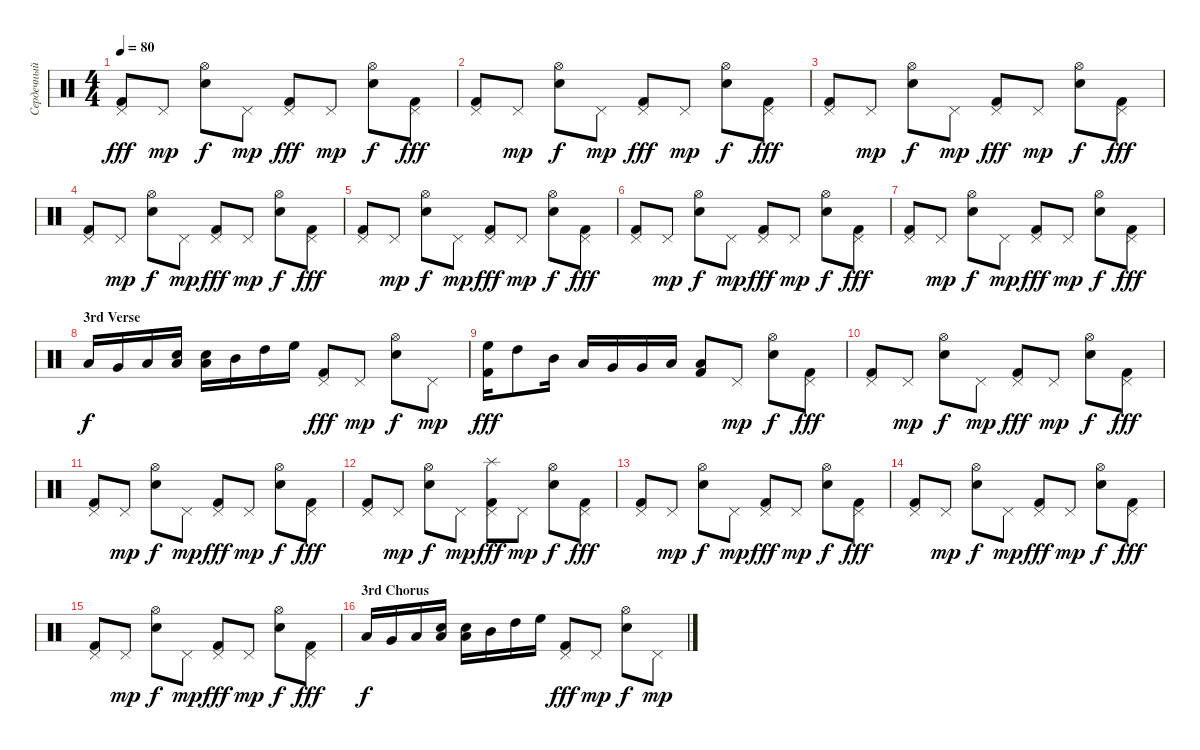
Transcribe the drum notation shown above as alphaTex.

\track ("Сердечный (Ударные)" "Сердечный ") {instrument percussion}
\staff {score}
\articulation defaults
\ts (4 4)
\tempo 80
\clef neutral
\ks c
("Pedal Hi-Hat (hit)" "Kick (hit) 2").8{dy fff} "Pedal Hi-Hat (hit)".8{dy mp} ("Hi-Hat (open)" "Electric Snare (hit)").8{dy f} "Pedal Hi-Hat (hit)".8{dy mp} ("Pedal Hi-Hat (hit)" "Kick (hit) 2").8{dy fff} "Pedal Hi-Hat (hit)".8{dy mp} ("Hi-Hat (open)" "Electric Snare (hit)").8{dy f} ("Pedal Hi-Hat (hit)" "Kick (hit) 2").8{dy fff} |
("Pedal Hi-Hat (hit)" "Kick (hit) 2").8 "Pedal Hi-Hat (hit)".8{dy mp} ("Hi-Hat (open)" "Electric Snare (hit)").8{dy f} "Pedal Hi-Hat (hit)".8{dy mp} ("Pedal Hi-Hat (hit)" "Kick (hit) 2").8{dy fff} "Pedal Hi-Hat (hit)".8{dy mp} ("Hi-Hat (open)" "Electric Snare (hit)").8{dy f} ("Pedal Hi-Hat (hit)" "Kick (hit) 2").8{dy fff} |
("Pedal Hi-Hat (hit)" "Kick (hit) 2").8 "Pedal Hi-Hat (hit)".8{dy mp} ("Hi-Hat (open)" "Electric Snare (hit)").8{dy f} "Pedal Hi-Hat (hit)".8{dy mp} ("Pedal Hi-Hat (hit)" "Kick (hit) 2").8{dy fff} "Pedal Hi-Hat (hit)".8{dy mp} ("Hi-Hat (open)" "Electric Snare (hit)").8{dy f} ("Pedal Hi-Hat (hit)" "Kick (hit) 2").8{dy fff} |
("Pedal Hi-Hat (hit)" "Kick (hit) 2").8 "Pedal Hi-Hat (hit)".8{dy mp} ("Hi-Hat (open)" "Electric Snare (hit)").8{dy f} "Pedal Hi-Hat (hit)".8{dy mp} ("Pedal Hi-Hat (hit)" "Kick (hit) 2").8{dy fff} "Pedal Hi-Hat (hit)".8{dy mp} ("Hi-Hat (open)" "Electric Snare (hit)").8{dy f} ("Pedal Hi-Hat (hit)" "Kick (hit) 2").8{dy fff} |
("Pedal Hi-Hat (hit)" "Kick (hit) 2").8 "Pedal Hi-Hat (hit)".8{dy mp} ("Hi-Hat (open)" "Electric Snare (hit)").8{dy f} "Pedal Hi-Hat (hit)".8{dy mp} ("Pedal Hi-Hat (hit)" "Kick (hit) 2").8{dy fff} "Pedal Hi-Hat (hit)".8{dy mp} ("Hi-Hat (open)" "Electric Snare (hit)").8{dy f} ("Pedal Hi-Hat (hit)" "Kick (hit) 2").8{dy fff} |
("Pedal Hi-Hat (hit)" "Kick (hit) 2").8 "Pedal Hi-Hat (hit)".8{dy mp} ("Hi-Hat (open)" "Electric Snare (hit)").8{dy f} "Pedal Hi-Hat (hit)".8{dy mp} ("Pedal Hi-Hat (hit)" "Kick (hit) 2").8{dy fff} "Pedal Hi-Hat (hit)".8{dy mp} ("Hi-Hat (open)" "Electric Snare (hit)").8{dy f} ("Pedal Hi-Hat (hit)" "Kick (hit) 2").8{dy fff} |
("Pedal Hi-Hat (hit)" "Kick (hit) 2").8 "Pedal Hi-Hat (hit)".8{dy mp} ("Hi-Hat (open)" "Electric Snare (hit)").8{dy f} "Pedal Hi-Hat (hit)".8{dy mp} ("Pedal Hi-Hat (hit)" "Kick (hit) 2").8{dy fff} "Pedal Hi-Hat (hit)".8{dy mp} ("Hi-Hat (open)" "Electric Snare (hit)").8{dy f} ("Pedal Hi-Hat (hit)" "Kick (hit) 2").8{dy fff} |
\section ("" "3rd Verse")
"Low Tom (hit)".16{dy f} "Very Low Tom (hit)".16 "Low Floor Tom (hit)".16 ("Low Floor Tom (hit)" "Electric Snare (hit)").16 ("Electric Snare (hit)" "Low Tom (hit)").16 "Mid Tom (hit)".16 "High Tom (hit)".16 "High Floor Tom (hit)".16 ("Pedal Hi-Hat (hit)" "Kick (hit) 2").8{dy fff} "Pedal Hi-Hat (hit)".8{dy mp} ("Hi-Hat (open)" "Electric Snare (hit)").8{dy f} "Pedal Hi-Hat (hit)".8{dy mp} |
("High Floor Tom (hit)" "Kick (hit) 2").16{dy fff} "High Tom (hit)".8 "Mid Tom (hit)".16 "Low Tom (hit)".16 "Very Low Tom (hit)".16 "Very Low Tom (hit)".16 "Low Floor Tom (hit)".16 ("Low Floor Tom (hit)" "Kick (hit) 2").8 "Pedal Hi-Hat (hit)".8{dy mp} ("Hi-Hat (open)" "Electric Snare (hit)").8{dy f} ("Pedal Hi-Hat (hit)" "Kick (hit) 2").8{dy fff} |
("Pedal Hi-Hat (hit)" "Kick (hit) 2").8 "Pedal Hi-Hat (hit)".8{dy mp} ("Hi-Hat (open)" "Electric Snare (hit)").8{dy f} "Pedal Hi-Hat (hit)".8{dy mp} ("Pedal Hi-Hat (hit)" "Kick (hit) 2").8{dy fff} "Pedal Hi-Hat (hit)".8{dy mp} ("Hi-Hat (open)" "Electric Snare (hit)").8{dy f} ("Pedal Hi-Hat (hit)" "Kick (hit) 2").8{dy fff} |
("Pedal Hi-Hat (hit)" "Kick (hit) 2").8 "Pedal Hi-Hat (hit)".8{dy mp} ("Hi-Hat (open)" "Electric Snare (hit)").8{dy f} "Pedal Hi-Hat (hit)".8{dy mp} ("Pedal Hi-Hat (hit)" "Kick (hit) 2").8{dy fff} "Pedal Hi-Hat (hit)".8{dy mp} ("Hi-Hat (open)" "Electric Snare (hit)").8{dy f} ("Pedal Hi-Hat (hit)" "Kick (hit) 2").8{dy fff} |
("Pedal Hi-Hat (hit)" "Kick (hit) 2").8 "Pedal Hi-Hat (hit)".8{dy mp} ("Hi-Hat (open)" "Electric Snare (hit)").8{dy f} "Pedal Hi-Hat (hit)".8{dy mp} ("Pedal Hi-Hat (hit)" "Kick (hit) 2" "Splash (hit)").8{dy fff} "Pedal Hi-Hat (hit)".8{dy mp} ("Hi-Hat (open)" "Electric Snare (hit)").8{dy f} ("Pedal Hi-Hat (hit)" "Kick (hit) 2").8{dy fff} |
("Pedal Hi-Hat (hit)" "Kick (hit) 2").8 "Pedal Hi-Hat (hit)".8{dy mp} ("Hi-Hat (open)" "Electric Snare (hit)").8{dy f} "Pedal Hi-Hat (hit)".8{dy mp} ("Pedal Hi-Hat (hit)" "Kick (hit) 2").8{dy fff} "Pedal Hi-Hat (hit)".8{dy mp} ("Hi-Hat (open)" "Electric Snare (hit)").8{dy f} ("Pedal Hi-Hat (hit)" "Kick (hit) 2").8{dy fff} |
("Pedal Hi-Hat (hit)" "Kick (hit) 2").8 "Pedal Hi-Hat (hit)".8{dy mp} ("Hi-Hat (open)" "Electric Snare (hit)").8{dy f} "Pedal Hi-Hat (hit)".8{dy mp} ("Pedal Hi-Hat (hit)" "Kick (hit) 2").8{dy fff} "Pedal Hi-Hat (hit)".8{dy mp} ("Hi-Hat (open)" "Electric Snare (hit)").8{dy f} ("Pedal Hi-Hat (hit)" "Kick (hit) 2").8{dy fff} |
("Pedal Hi-Hat (hit)" "Kick (hit) 2").8 "Pedal Hi-Hat (hit)".8{dy mp} ("Hi-Hat (open)" "Electric Snare (hit)").8{dy f} "Pedal Hi-Hat (hit)".8{dy mp} ("Pedal Hi-Hat (hit)" "Kick (hit) 2").8{dy fff} "Pedal Hi-Hat (hit)".8{dy mp} ("Hi-Hat (open)" "Electric Snare (hit)").8{dy f} ("Pedal Hi-Hat (hit)" "Kick (hit) 2").8{dy fff} |
\section ("" "3rd Chorus")
"Low Tom (hit)".16{dy f} "Very Low Tom (hit)".16 "Low Floor Tom (hit)".16 ("Low Floor Tom (hit)" "Electric Snare (hit)").16 ("Electric Snare (hit)" "Low Tom (hit)").16 "Mid Tom (hit)".16 "High Tom (hit)".16 "High Floor Tom (hit)".16 ("Pedal Hi-Hat (hit)" "Kick (hit) 2").8{dy fff} "Pedal Hi-Hat (hit)".8{dy mp} ("Hi-Hat (open)" "Electric Snare (hit)").8{dy f} "Pedal Hi-Hat (hit)".8{dy mp}
